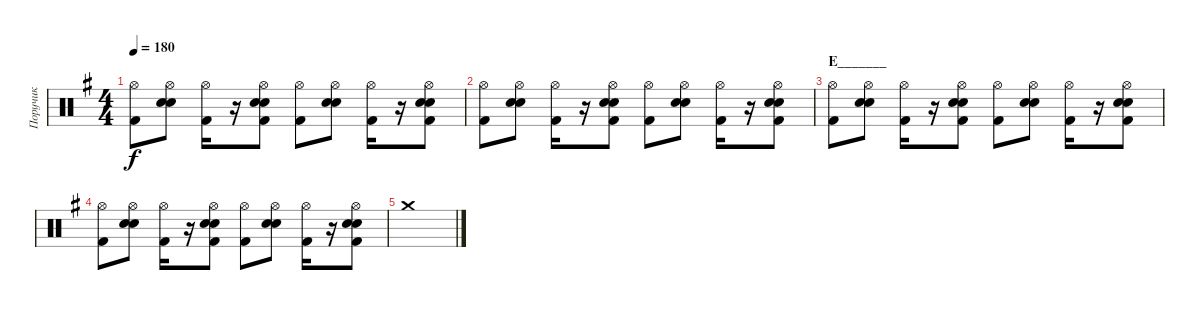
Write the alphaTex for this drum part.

\track ("Поручик" "Поручик") {instrument percussion}
\staff {score}
\articulation defaults
\ts (4 4)
\tempo 180
\clef neutral
\ks g
("Kick (hit) 2" "Hi-Hat (open)").8{dy f} ("Hi-Hat (open)" "Electric Snare (hit)" "Electric Snare (hit)").8 ("Kick (hit) 2" "Hi-Hat (open)").16 r.16 ("Kick (hit) 2" "Hi-Hat (open)" "Electric Snare (hit)" "Electric Snare (hit)").8 ("Kick (hit) 2" "Hi-Hat (open)").8 ("Hi-Hat (open)" "Electric Snare (hit)" "Electric Snare (hit)").8 ("Kick (hit) 2" "Hi-Hat (open)").16 r.16 ("Kick (hit) 2" "Hi-Hat (open)" "Electric Snare (hit)" "Electric Snare (hit)").8 |
("Kick (hit) 2" "Hi-Hat (open)").8 ("Hi-Hat (open)" "Electric Snare (hit)" "Electric Snare (hit)").8 ("Kick (hit) 2" "Hi-Hat (open)").16 r.16 ("Kick (hit) 2" "Hi-Hat (open)" "Electric Snare (hit)" "Electric Snare (hit)").8 ("Kick (hit) 2" "Hi-Hat (open)").8 ("Hi-Hat (open)" "Electric Snare (hit)" "Electric Snare (hit)").8 ("Kick (hit) 2" "Hi-Hat (open)").16 r.16 ("Kick (hit) 2" "Hi-Hat (open)" "Electric Snare (hit)" "Electric Snare (hit)").8 |
\section ("" "Е_______")
("Kick (hit) 2" "Hi-Hat (open)").8 ("Hi-Hat (open)" "Electric Snare (hit)" "Electric Snare (hit)").8 ("Kick (hit) 2" "Hi-Hat (open)").16 r.16 ("Kick (hit) 2" "Hi-Hat (open)" "Electric Snare (hit)" "Electric Snare (hit)").8 ("Kick (hit) 2" "Hi-Hat (open)").8 ("Hi-Hat (open)" "Electric Snare (hit)" "Electric Snare (hit)").8 ("Kick (hit) 2" "Hi-Hat (open)").16 r.16 ("Kick (hit) 2" "Hi-Hat (open)" "Electric Snare (hit)" "Electric Snare (hit)").8 |
("Kick (hit) 2" "Hi-Hat (open)").8 ("Hi-Hat (open)" "Electric Snare (hit)" "Electric Snare (hit)").8 ("Kick (hit) 2" "Hi-Hat (open)").16 r.16 ("Kick (hit) 2" "Hi-Hat (open)" "Electric Snare (hit)" "Electric Snare (hit)").8 ("Kick (hit) 2" "Hi-Hat (open)").8 ("Hi-Hat (open)" "Electric Snare (hit)" "Electric Snare (hit)").8 ("Kick (hit) 2" "Hi-Hat (open)").16 r.16 ("Kick (hit) 2" "Hi-Hat (open)" "Electric Snare (hit)" "Electric Snare (hit)").8 |
"Crash medium (hit)".1
